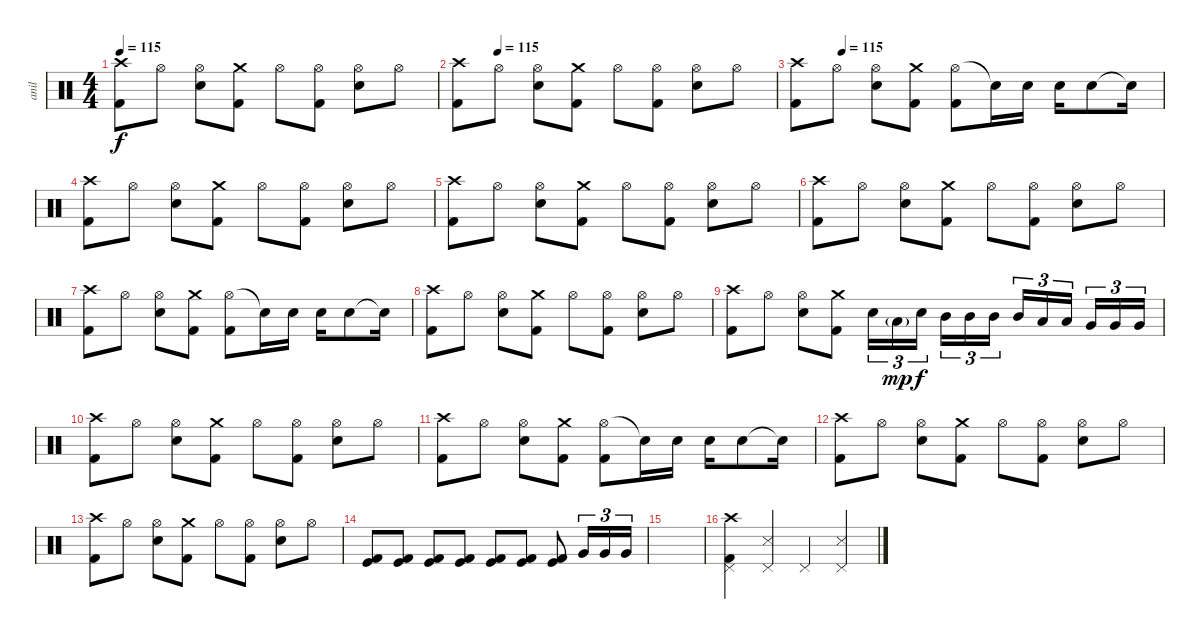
\track ("anil " "anil ") {instrument percussion}
\staff {score}
\articulation defaults
\ts (4 4)
\tempo 115
\clef neutral
\ks c
("Crash high (hit)" "Kick (hit) 2").8{dy f} "Hi-Hat (open)".8 ("Hi-Hat (open)" "Electric Snare (hit)").8 ("Crash medium (hit)" "Kick (hit) 2").8 "Hi-Hat (open)".8 ("Hi-Hat (open)" "Kick (hit) 2").8 ("Hi-Hat (open)" "Electric Snare (hit)").8 "Hi-Hat (open)".8 |
\tempo (115 0.125)
("Crash high (hit)" "Kick (hit) 2").8 "Hi-Hat (open)".8 ("Hi-Hat (open)" "Electric Snare (hit)").8 ("Crash medium (hit)" "Kick (hit) 2").8 "Hi-Hat (open)".8 ("Hi-Hat (open)" "Kick (hit) 2").8 ("Hi-Hat (open)" "Electric Snare (hit)").8 "Hi-Hat (open)".8 |
\tempo (115 0.125)
("Crash high (hit)" "Kick (hit) 2").8 "Hi-Hat (open)".8 ("Hi-Hat (open)" "Electric Snare (hit)").8 ("Crash medium (hit)" "Kick (hit) 2").8 ("Hi-Hat (open)" "Kick (hit) 2").8 "Snare (hit)"{t}.16 "Electric Snare (hit)".16 "Electric Snare (hit)".16 "Electric Snare (hit)".8 "Snare (hit)"{t}.16 |
("Crash high (hit)" "Kick (hit) 2").8 "Hi-Hat (open)".8 ("Hi-Hat (open)" "Electric Snare (hit)").8 ("Crash medium (hit)" "Kick (hit) 2").8 "Hi-Hat (open)".8 ("Hi-Hat (open)" "Kick (hit) 2").8 ("Hi-Hat (open)" "Electric Snare (hit)").8 "Hi-Hat (open)".8 |
("Crash high (hit)" "Kick (hit) 2").8 "Hi-Hat (open)".8 ("Hi-Hat (open)" "Electric Snare (hit)").8 ("Crash medium (hit)" "Kick (hit) 2").8 "Hi-Hat (open)".8 ("Hi-Hat (open)" "Kick (hit) 2").8 ("Hi-Hat (open)" "Electric Snare (hit)").8 "Hi-Hat (open)".8 |
("Crash high (hit)" "Kick (hit) 2").8 "Hi-Hat (open)".8 ("Hi-Hat (open)" "Electric Snare (hit)").8 ("Crash medium (hit)" "Kick (hit) 2").8 "Hi-Hat (open)".8 ("Hi-Hat (open)" "Kick (hit) 2").8 ("Hi-Hat (open)" "Electric Snare (hit)").8 "Hi-Hat (open)".8 |
("Crash high (hit)" "Kick (hit) 2").8 "Hi-Hat (open)".8 ("Hi-Hat (open)" "Electric Snare (hit)").8 ("Crash medium (hit)" "Kick (hit) 2").8 ("Hi-Hat (open)" "Kick (hit) 2").8 "Snare (hit)"{t}.16 "Electric Snare (hit)".16 "Electric Snare (hit)".16 "Electric Snare (hit)".8 "Snare (hit)"{t}.16 |
("Crash high (hit)" "Kick (hit) 2").8 "Hi-Hat (open)".8 ("Hi-Hat (open)" "Electric Snare (hit)").8 ("Crash medium (hit)" "Kick (hit) 2").8 "Hi-Hat (open)".8 ("Hi-Hat (open)" "Kick (hit) 2").8 ("Hi-Hat (open)" "Electric Snare (hit)").8 "Hi-Hat (open)".8 |
("Crash high (hit)" "Kick (hit) 2").8 "Hi-Hat (open)".8 ("Hi-Hat (open)" "Electric Snare (hit)").8 ("Crash medium (hit)" "Kick (hit) 2").8 "Electric Snare (hit)".16{tu (3 2)} "Low Tom (hit)"{g}.16{tu (3 2) dy mp} "Electric Snare (hit)".16{tu (3 2) dy f} "Mid Tom (hit)".16{tu (3 2)} "Mid Tom (hit)".16{tu (3 2)} "Mid Tom (hit)".16{tu (3 2)} "Mid Tom (hit)".16{tu (3 2)} "Low Tom (hit)".16{tu (3 2)} "Low Tom (hit)".16{tu (3 2)} "Very Low Tom (hit)".16{tu (3 2)} "Very Low Tom (hit)".16{tu (3 2)} "Very Low Tom (hit)".16{tu (3 2)} |
("Crash high (hit)" "Kick (hit) 2").8 "Hi-Hat (open)".8 ("Hi-Hat (open)" "Electric Snare (hit)").8 ("Crash medium (hit)" "Kick (hit) 2").8 "Hi-Hat (open)".8 ("Hi-Hat (open)" "Kick (hit) 2").8 ("Hi-Hat (open)" "Electric Snare (hit)").8 "Hi-Hat (open)".8 |
("Crash high (hit)" "Kick (hit) 2").8 "Hi-Hat (open)".8 ("Hi-Hat (open)" "Electric Snare (hit)").8 ("Crash medium (hit)" "Kick (hit) 2").8 ("Hi-Hat (open)" "Kick (hit) 2").8 "Snare (hit)"{t}.16 "Electric Snare (hit)".16 "Electric Snare (hit)".16 "Electric Snare (hit)".8 "Snare (hit)"{t}.16 |
("Crash high (hit)" "Kick (hit) 2").8 "Hi-Hat (open)".8 ("Hi-Hat (open)" "Electric Snare (hit)").8 ("Crash medium (hit)" "Kick (hit) 2").8 "Hi-Hat (open)".8 ("Hi-Hat (open)" "Kick (hit) 2").8 ("Hi-Hat (open)" "Electric Snare (hit)").8 "Hi-Hat (open)".8 |
("Crash high (hit)" "Kick (hit) 2").8 "Hi-Hat (open)".8 ("Hi-Hat (open)" "Electric Snare (hit)").8 ("Crash medium (hit)" "Kick (hit) 2").8 "Hi-Hat (open)".8 ("Hi-Hat (open)" "Kick (hit) 2").8 ("Hi-Hat (open)" "Electric Snare (hit)").8 "Hi-Hat (open)".8 |
("Kick (hit) 2" "Kick (hit)").8 ("Kick (hit) 2" "Kick (hit)").8 ("Kick (hit) 2" "Kick (hit)").8 ("Kick (hit) 2" "Kick (hit)").8 ("Kick (hit) 2" "Kick (hit)").8 ("Kick (hit) 2" "Kick (hit)").8 ("Kick (hit) 2" "Kick (hit)").8 "Very Low Tom (hit)".16{tu (3 2)} "Very Low Tom (hit)".16{tu (3 2)} "Very Low Tom (hit)".16{tu (3 2)} |
|
("Crash high (hit)" "Pedal Hi-Hat (hit)" "Kick (hit) 2").4 ("Pedal Hi-Hat (hit)" "Snare (side stick) 3").4 "Pedal Hi-Hat (hit)".4 ("Pedal Hi-Hat (hit)" "Snare (side stick) 3").4
